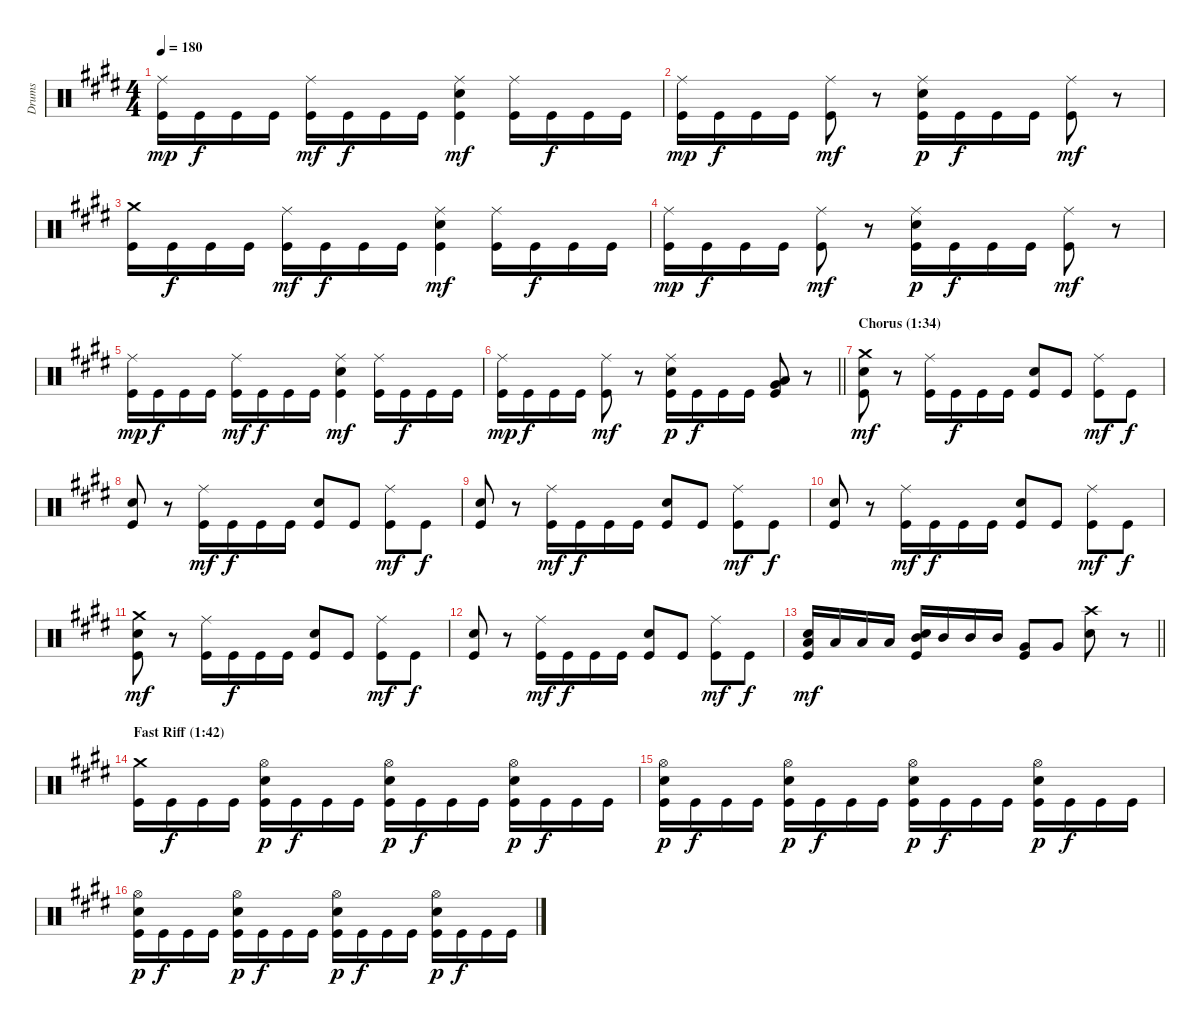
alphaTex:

\track ("Drums" "Drums") {instrument percussion}
\staff {score}
\articulation defaults
\ts (4 4)
\tempo 180
\clef neutral
\ks c#minor
("Ride (middle)" "Kick (hit)").16{dy mp} "Kick (hit)".16{dy f} "Kick (hit)".16 "Kick (hit)".16 ("Ride (middle)" "Kick (hit)").16{dy mf} "Kick (hit)".16{dy f} "Kick (hit)".16 "Kick (hit)".16 ("Ride (middle)" "Snare (hit) 2" "Kick (hit)").4{dy mf} ("Ride (middle)" "Kick (hit)").16 "Kick (hit)".16{dy f} "Kick (hit)".16 "Kick (hit)".16 |
("Ride (middle)" "Kick (hit)").16{dy mp} "Kick (hit)".16{dy f} "Kick (hit)".16 "Kick (hit)".16 ("Ride (middle)" "Kick (hit)").8{dy mf} r.8 ("Ride (middle)" "Snare (hit) 2" "Kick (hit)").16{dy p} "Kick (hit)".16{dy f} "Kick (hit)".16 "Kick (hit)".16 ("Ride (middle)" "Kick (hit)").8{dy mf} r.8 |
("Crash medium (hit)" "Kick (hit)").16 "Kick (hit)".16{dy f} "Kick (hit)".16 "Kick (hit)".16 ("Ride (middle)" "Kick (hit)").16{dy mf} "Kick (hit)".16{dy f} "Kick (hit)".16 "Kick (hit)".16 ("Ride (middle)" "Snare (hit) 2" "Kick (hit)").4{dy mf} ("Ride (middle)" "Kick (hit)").16 "Kick (hit)".16{dy f} "Kick (hit)".16 "Kick (hit)".16 |
("Ride (middle)" "Kick (hit)").16{dy mp} "Kick (hit)".16{dy f} "Kick (hit)".16 "Kick (hit)".16 ("Ride (middle)" "Kick (hit)").8{dy mf} r.8 ("Ride (middle)" "Snare (hit) 2" "Kick (hit)").16{dy p} "Kick (hit)".16{dy f} "Kick (hit)".16 "Kick (hit)".16 ("Ride (middle)" "Kick (hit)").8{dy mf} r.8 |
("Ride (middle)" "Kick (hit)").16{dy mp} "Kick (hit)".16{dy f} "Kick (hit)".16 "Kick (hit)".16 ("Ride (middle)" "Kick (hit)").16{dy mf} "Kick (hit)".16{dy f} "Kick (hit)".16 "Kick (hit)".16 ("Ride (middle)" "Snare (hit) 2" "Kick (hit)").4{dy mf} ("Ride (middle)" "Kick (hit)").16 "Kick (hit)".16{dy f} "Kick (hit)".16 "Kick (hit)".16 |
\barLineRight lightlight
("Ride (middle)" "Kick (hit)").16{dy mp} "Kick (hit)".16{dy f} "Kick (hit)".16 "Kick (hit)".16 ("Ride (middle)" "Kick (hit)").8{dy mf} r.8 ("Ride (middle)" "Snare (hit) 2" "Kick (hit)").16{dy p} "Kick (hit)".16{dy f} "Kick (hit)".16 "Kick (hit)".16 ("Very Low Tom (hit)" "Low Floor Tom (hit)" "Kick (hit)").8 r.8 |
\section ("" "Chorus (1:34)")
("Crash medium (hit)" "Snare (hit) 2" "Kick (hit)").8{dy mf} r.8 ("Ride (middle)" "Kick (hit)").16 "Kick (hit)".16{dy f} "Kick (hit)".16 "Kick (hit)".16 ("Snare (hit) 2" "Kick (hit)").8 "Kick (hit)".8 ("Ride (middle)" "Kick (hit)").8{dy mf} "Kick (hit)".8{dy f} |
("Snare (hit) 2" "Kick (hit)").8 r.8 ("Ride (middle)" "Kick (hit)").16{dy mf} "Kick (hit)".16{dy f} "Kick (hit)".16 "Kick (hit)".16 ("Snare (hit) 2" "Kick (hit)").8 "Kick (hit)".8 ("Ride (middle)" "Kick (hit)").8{dy mf} "Kick (hit)".8{dy f} |
("Snare (hit) 2" "Kick (hit)").8 r.8 ("Ride (middle)" "Kick (hit)").16{dy mf} "Kick (hit)".16{dy f} "Kick (hit)".16 "Kick (hit)".16 ("Snare (hit) 2" "Kick (hit)").8 "Kick (hit)".8 ("Ride (middle)" "Kick (hit)").8{dy mf} "Kick (hit)".8{dy f} |
("Snare (hit) 2" "Kick (hit)").8 r.8 ("Ride (middle)" "Kick (hit)").16{dy mf} "Kick (hit)".16{dy f} "Kick (hit)".16 "Kick (hit)".16 ("Snare (hit) 2" "Kick (hit)").8 "Kick (hit)".8 ("Ride (middle)" "Kick (hit)").8{dy mf} "Kick (hit)".8{dy f} |
("Crash medium (hit)" "Snare (hit) 2" "Kick (hit)").8{dy mf} r.8 ("Ride (middle)" "Kick (hit)").16 "Kick (hit)".16{dy f} "Kick (hit)".16 "Kick (hit)".16 ("Snare (hit) 2" "Kick (hit)").8 "Kick (hit)".8 ("Ride (middle)" "Kick (hit)").8{dy mf} "Kick (hit)".8{dy f} |
("Snare (hit) 2" "Kick (hit)").8 r.8 ("Ride (middle)" "Kick (hit)").16{dy mf} "Kick (hit)".16{dy f} "Kick (hit)".16 "Kick (hit)".16 ("Snare (hit) 2" "Kick (hit)").8 "Kick (hit)".8 ("Ride (middle)" "Kick (hit)").8{dy mf} "Kick (hit)".8{dy f} |
\barLineRight lightlight
("Low Tom (hit)" "Snare (hit) 2" "Kick (hit)").16{dy mf} "Low Tom (hit)".16 "Low Tom (hit)".16 "Low Floor Tom (hit)".16 ("Mid Tom (hit)" "Snare (hit) 2" "Kick (hit)").16 "Mid Tom (hit)".16 "Mid Tom (hit)".16 "Mid Tom (hit)".16 ("Very Low Tom (hit)" "Kick (hit)").8 "Very Low Tom (hit)".8 ("Crash high (hit)" "Snare (hit) 2").8 r.8 |
\section ("" "Fast Riff (1:42)")
("Crash medium (hit)" "Kick (hit)").16 "Kick (hit)".16{dy f} "Kick (hit)".16 "Kick (hit)".16 ("Hi-Hat (open)" "Snare (hit) 2" "Kick (hit)").16{dy p} "Kick (hit)".16{dy f} "Kick (hit)".16 "Kick (hit)".16 ("Hi-Hat (open)" "Snare (hit) 2" "Kick (hit)").16{dy p} "Kick (hit)".16{dy f} "Kick (hit)".16 "Kick (hit)".16 ("Hi-Hat (open)" "Snare (hit) 2" "Kick (hit)").16{dy p} "Kick (hit)".16{dy f} "Kick (hit)".16 "Kick (hit)".16 |
("Hi-Hat (open)" "Snare (hit) 2" "Kick (hit)").16{dy p} "Kick (hit)".16{dy f} "Kick (hit)".16 "Kick (hit)".16 ("Hi-Hat (open)" "Snare (hit) 2" "Kick (hit)").16{dy p} "Kick (hit)".16{dy f} "Kick (hit)".16 "Kick (hit)".16 ("Hi-Hat (open)" "Snare (hit) 2" "Kick (hit)").16{dy p} "Kick (hit)".16{dy f} "Kick (hit)".16 "Kick (hit)".16 ("Hi-Hat (open)" "Snare (hit) 2" "Kick (hit)").16{dy p} "Kick (hit)".16{dy f} "Kick (hit)".16 "Kick (hit)".16 |
("Hi-Hat (open)" "Snare (hit) 2" "Kick (hit)").16{dy p} "Kick (hit)".16{dy f} "Kick (hit)".16 "Kick (hit)".16 ("Hi-Hat (open)" "Snare (hit) 2" "Kick (hit)").16{dy p} "Kick (hit)".16{dy f} "Kick (hit)".16 "Kick (hit)".16 ("Hi-Hat (open)" "Snare (hit) 2" "Kick (hit)").16{dy p} "Kick (hit)".16{dy f} "Kick (hit)".16 "Kick (hit)".16 ("Hi-Hat (open)" "Snare (hit) 2" "Kick (hit)").16{dy p} "Kick (hit)".16{dy f} "Kick (hit)".16 "Kick (hit)".16
